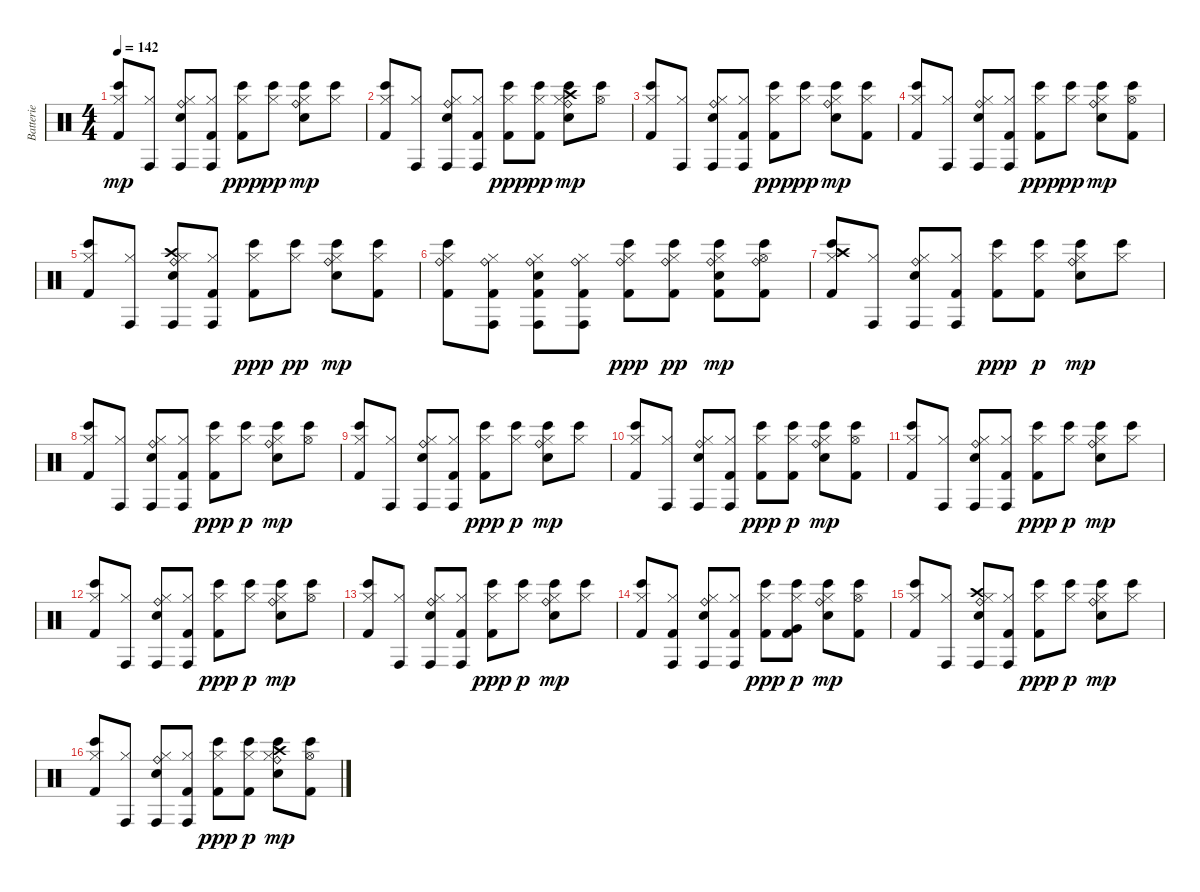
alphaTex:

\track ("Batterie" "Batterie") {instrument percussion}
\staff {score}
\articulation defaults
\ts (4 4)
\tempo 142
\clef neutral
\ks c
("Kick (hit) 2" "Hi-Hat (closed)" "Bongo High (hit)").8{dy mp} ("Hi-Hat (closed)" "Conga high (hit)").8 ("Electric Snare (hit)" "Hi-Hat (closed)" "Ride (bell)" "Conga high (hit)").8 ("Kick (hit) 2" "Hi-Hat (closed)" "Conga high (hit)").8 ("Kick (hit) 2" "Hi-Hat (closed)" "Bongo High (hit)").8{dy ppp} ("Hi-Hat (closed)" "Bongo High (hit)").8{dy pp} ("Electric Snare (hit)" "Hi-Hat (closed)" "Ride (bell)" "Bongo High (hit)").8{dy mp} ("Hi-Hat (closed)" "Bongo High (hit)").8 |
("Kick (hit) 2" "Hi-Hat (closed)" "Bongo High (hit)").8 ("Hi-Hat (closed)" "Conga high (hit)").8 ("Electric Snare (hit)" "Hi-Hat (closed)" "Ride (bell)" "Conga high (hit)").8 ("Kick (hit) 2" "Hi-Hat (closed)" "Conga high (hit)").8 ("Kick (hit) 2" "Hi-Hat (closed)" "Bongo High (hit)").8{dy ppp} ("Kick (hit) 2" "Hi-Hat (closed)" "Bongo High (hit)").8{dy pp} ("Electric Snare (hit)" "Hi-Hat (closed)" "Ride (bell)" "Crash high (hit)" "Bongo High (hit)").8{dy mp} ("Hi-Hat (open)" "Bongo High (hit)").8 |
("Kick (hit) 2" "Hi-Hat (closed)" "Bongo High (hit)").8 ("Hi-Hat (closed)" "Conga high (hit)").8 ("Electric Snare (hit)" "Hi-Hat (closed)" "Ride (bell)" "Conga high (hit)").8 ("Kick (hit) 2" "Hi-Hat (closed)" "Conga high (hit)").8 ("Kick (hit) 2" "Hi-Hat (closed)" "Bongo High (hit)").8{dy ppp} ("Hi-Hat (closed)" "Bongo High (hit)").8{dy pp} ("Electric Snare (hit)" "Hi-Hat (closed)" "Ride (bell)" "Bongo High (hit)").8{dy mp} ("Kick (hit) 2" "Hi-Hat (closed)" "Bongo High (hit)").8 |
("Kick (hit) 2" "Hi-Hat (closed)" "Bongo High (hit)").8 ("Hi-Hat (closed)" "Conga high (hit)").8 ("Electric Snare (hit)" "Hi-Hat (closed)" "Ride (bell)" "Conga high (hit)").8 ("Kick (hit) 2" "Hi-Hat (closed)" "Conga high (hit)").8 ("Kick (hit) 2" "Hi-Hat (closed)" "Bongo High (hit)").8{dy ppp} ("Hi-Hat (closed)" "Bongo High (hit)").8{dy pp} ("Electric Snare (hit)" "Hi-Hat (closed)" "Ride (bell)" "Bongo High (hit)").8{dy mp} ("Kick (hit) 2" "Hi-Hat (open)" "Bongo High (hit)").8 |
("Kick (hit) 2" "Hi-Hat (closed)" "Bongo High (hit)").8 ("Hi-Hat (closed)" "Conga high (hit)").8 ("Electric Snare (hit)" "Hi-Hat (closed)" "Ride (bell)" "Crash high (hit)" "Conga high (hit)").8 ("Kick (hit) 2" "Hi-Hat (closed)" "Conga high (hit)").8 ("Kick (hit) 2" "Hi-Hat (closed)" "Bongo High (hit)").8{dy ppp} ("Hi-Hat (closed)" "Bongo High (hit)").8{dy pp} ("Electric Snare (hit)" "Hi-Hat (closed)" "Ride (bell)" "Bongo High (hit)").8{dy mp} ("Kick (hit) 2" "Hi-Hat (closed)" "Bongo High (hit)").8 |
("Kick (hit) 2" "Hi-Hat (closed)" "Ride (bell)" "Bongo High (hit)").8 ("Kick (hit) 2" "Hi-Hat (closed)" "Ride (bell)" "Conga high (hit)").8 ("Kick (hit) 2" "Electric Snare (hit)" "Hi-Hat (closed)" "Ride (bell)" "Conga high (hit)").8 ("Kick (hit) 2" "Hi-Hat (closed)" "Ride (bell)" "Conga high (hit)").8 ("Kick (hit) 2" "Hi-Hat (closed)" "Ride (bell)" "Bongo High (hit)").8{dy ppp} ("Kick (hit) 2" "Hi-Hat (closed)" "Ride (bell)" "Bongo High (hit)").8{dy pp} ("Kick (hit) 2" "Electric Snare (hit)" "Hi-Hat (closed)" "Ride (bell)" "Bongo High (hit)").8{dy mp} ("Kick (hit) 2" "Hi-Hat (open)" "Ride (bell)" "Bongo High (hit)").8 |
("Kick (hit) 2" "Hi-Hat (closed)" "Crash high (hit)" "Bongo High (hit)").8 ("Hi-Hat (closed)" "Conga high (hit)").8 ("Electric Snare (hit)" "Hi-Hat (closed)" "Ride (bell)" "Conga high (hit)").8 ("Kick (hit) 2" "Hi-Hat (closed)" "Conga high (hit)").8 ("Kick (hit) 2" "Hi-Hat (closed)" "Bongo High (hit)").8{dy ppp} ("Kick (hit) 2" "Hi-Hat (closed)" "Bongo High (hit)").8{dy p} ("Electric Snare (hit)" "Hi-Hat (closed)" "Ride (bell)" "Bongo High (hit)").8{dy mp} ("Hi-Hat (closed)" "Bongo High (hit)").8 |
("Kick (hit) 2" "Hi-Hat (closed)" "Bongo High (hit)").8 ("Hi-Hat (closed)" "Conga high (hit)").8 ("Electric Snare (hit)" "Hi-Hat (closed)" "Ride (bell)" "Conga high (hit)").8 ("Kick (hit) 2" "Hi-Hat (closed)" "Conga high (hit)").8 ("Kick (hit) 2" "Hi-Hat (closed)" "Bongo High (hit)").8{dy ppp} ("Hi-Hat (closed)" "Bongo High (hit)").8{dy p} ("Electric Snare (hit)" "Hi-Hat (closed)" "Ride (bell)" "Bongo High (hit)").8{dy mp} ("Hi-Hat (open)" "Bongo High (hit)").8 |
("Kick (hit) 2" "Hi-Hat (closed)" "Bongo High (hit)").8 ("Hi-Hat (closed)" "Conga high (hit)").8 ("Electric Snare (hit)" "Hi-Hat (closed)" "Ride (bell)" "Conga high (hit)").8 ("Kick (hit) 2" "Hi-Hat (closed)" "Conga high (hit)").8 ("Kick (hit) 2" "Hi-Hat (closed)" "Bongo High (hit)").8{dy ppp} ("Hi-Hat (closed)" "Bongo High (hit)").8{dy p} ("Electric Snare (hit)" "Hi-Hat (closed)" "Ride (bell)" "Bongo High (hit)").8{dy mp} ("Hi-Hat (closed)" "Bongo High (hit)").8 |
("Kick (hit) 2" "Hi-Hat (closed)" "Bongo High (hit)").8 ("Hi-Hat (closed)" "Conga high (hit)").8 ("Electric Snare (hit)" "Hi-Hat (closed)" "Ride (bell)" "Conga high (hit)").8 ("Kick (hit) 2" "Hi-Hat (closed)" "Conga high (hit)").8 ("Kick (hit) 2" "Hi-Hat (closed)" "Bongo High (hit)").8{dy ppp} ("Kick (hit) 2" "Hi-Hat (closed)" "Bongo High (hit)").8{dy p} ("Electric Snare (hit)" "Hi-Hat (closed)" "Ride (bell)" "Bongo High (hit)").8{dy mp} ("Kick (hit) 2" "Hi-Hat (open)" "Bongo High (hit)").8 |
("Kick (hit) 2" "Hi-Hat (closed)" "Bongo High (hit)").8 ("Hi-Hat (closed)" "Conga high (hit)").8 ("Electric Snare (hit)" "Hi-Hat (closed)" "Ride (bell)" "Conga high (hit)").8 ("Kick (hit) 2" "Hi-Hat (closed)" "Conga high (hit)").8 ("Kick (hit) 2" "Hi-Hat (closed)" "Bongo High (hit)").8{dy ppp} ("Hi-Hat (closed)" "Bongo High (hit)").8{dy p} ("Electric Snare (hit)" "Hi-Hat (closed)" "Ride (bell)" "Bongo High (hit)").8{dy mp} ("Hi-Hat (closed)" "Bongo High (hit)").8 |
("Kick (hit) 2" "Hi-Hat (closed)" "Bongo High (hit)").8 ("Hi-Hat (closed)" "Conga high (hit)").8 ("Electric Snare (hit)" "Hi-Hat (closed)" "Ride (bell)" "Conga high (hit)").8 ("Kick (hit) 2" "Hi-Hat (closed)" "Conga high (hit)").8 ("Kick (hit) 2" "Hi-Hat (closed)" "Bongo High (hit)").8{dy ppp} ("Hi-Hat (closed)" "Bongo High (hit)").8{dy p} ("Electric Snare (hit)" "Hi-Hat (closed)" "Ride (bell)" "Bongo High (hit)").8{dy mp} ("Hi-Hat (open)" "Bongo High (hit)").8 |
("Kick (hit) 2" "Hi-Hat (closed)" "Bongo High (hit)").8 ("Hi-Hat (closed)" "Conga high (hit)").8 ("Electric Snare (hit)" "Hi-Hat (closed)" "Ride (bell)" "Conga high (hit)").8 ("Kick (hit) 2" "Hi-Hat (closed)" "Conga high (hit)").8 ("Kick (hit) 2" "Hi-Hat (closed)" "Bongo High (hit)").8{dy ppp} ("Hi-Hat (closed)" "Bongo High (hit)").8{dy p} ("Electric Snare (hit)" "Hi-Hat (closed)" "Ride (bell)" "Bongo High (hit)").8{dy mp} ("Hi-Hat (closed)" "Bongo High (hit)").8 |
("Kick (hit) 2" "Hi-Hat (closed)" "Bongo High (hit)").8 ("Kick (hit) 2" "Hi-Hat (closed)" "Conga high (hit)").8 ("Electric Snare (hit)" "Hi-Hat (closed)" "Ride (bell)" "Conga high (hit)").8 ("Kick (hit) 2" "Hi-Hat (closed)" "Conga high (hit)").8 ("Kick (hit) 2" "Hi-Hat (closed)" "Bongo High (hit)").8{dy ppp} ("Kick (hit) 2" "Hi-Hat (closed)" "Very Low Tom (hit)" "Bongo High (hit)").8{dy p} ("Electric Snare (hit)" "Hi-Hat (closed)" "Ride (bell)" "Bongo High (hit)").8{dy mp} ("Kick (hit) 2" "Hi-Hat (open)" "Bongo High (hit)").8 |
("Kick (hit) 2" "Hi-Hat (closed)" "Bongo High (hit)").8 ("Hi-Hat (closed)" "Conga high (hit)").8 ("Electric Snare (hit)" "Hi-Hat (closed)" "Ride (bell)" "Crash high (hit)" "Conga high (hit)").8 ("Kick (hit) 2" "Hi-Hat (closed)" "Conga high (hit)").8 ("Kick (hit) 2" "Hi-Hat (closed)" "Bongo High (hit)").8{dy ppp} ("Hi-Hat (closed)" "Bongo High (hit)").8{dy p} ("Electric Snare (hit)" "Hi-Hat (closed)" "Ride (bell)" "Bongo High (hit)").8{dy mp} ("Hi-Hat (closed)" "Bongo High (hit)").8 |
("Kick (hit) 2" "Hi-Hat (closed)" "Bongo High (hit)").8 ("Hi-Hat (closed)" "Conga high (hit)").8 ("Electric Snare (hit)" "Hi-Hat (closed)" "Ride (bell)" "Conga high (hit)").8 ("Kick (hit) 2" "Hi-Hat (closed)" "Conga high (hit)").8 ("Kick (hit) 2" "Hi-Hat (closed)" "Bongo High (hit)").8{dy ppp} ("Kick (hit) 2" "Hi-Hat (closed)" "Bongo High (hit)").8{dy p} ("Electric Snare (hit)" "Hi-Hat (closed)" "Ride (bell)" "Crash high (hit)" "Bongo High (hit)").8{dy mp} ("Kick (hit) 2" "Hi-Hat (open)" "Bongo High (hit)").8
